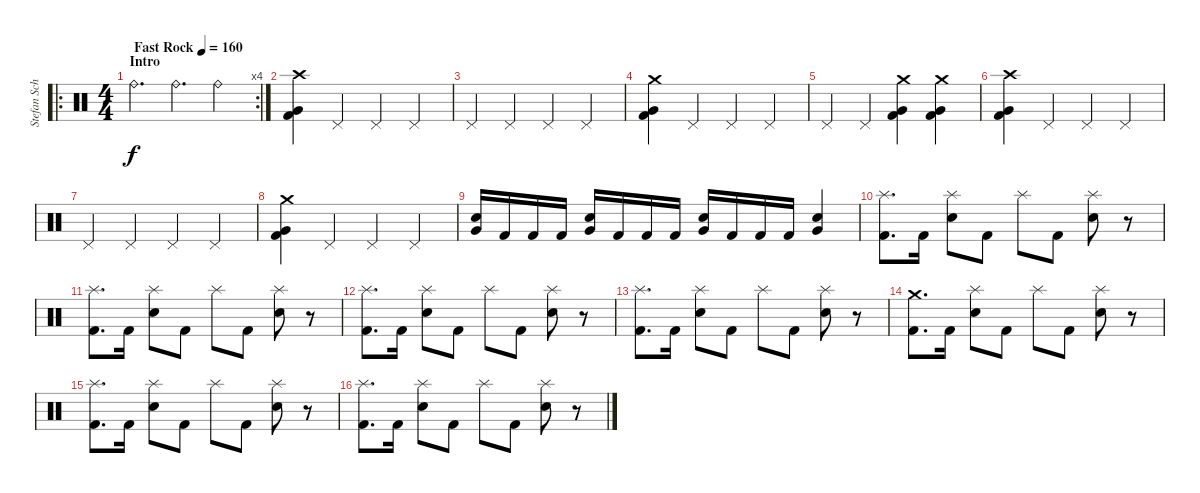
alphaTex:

\track ("Stefan Schwarzmann" "Stefan Sch") {instrument percussion}
\staff {score}
\articulation defaults
\ro
\rc 4
\ts (4 4)
\section ("" "Intro")
\tempo (160 "Fast Rock")
\clef neutral
\ks c "Ride (bell)".4{d dy f} "Ride (bell)".4{d} "Ride (bell)".4
|
("Crash high (hit)" "Very Low Tom (hit)" "Kick (hit) 2").4 "Pedal Hi-Hat (hit)".4 "Pedal Hi-Hat (hit)".4 "Pedal Hi-Hat (hit)".4 |
"Pedal Hi-Hat (hit)".4 "Pedal Hi-Hat (hit)".4 "Pedal Hi-Hat (hit)".4 "Pedal Hi-Hat (hit)".4 |
("Crash medium (hit)" "Very Low Tom (hit)" "Kick (hit) 2").4 "Pedal Hi-Hat (hit)".4 "Pedal Hi-Hat (hit)".4 "Pedal Hi-Hat (hit)".4 |
"Pedal Hi-Hat (hit)".4 "Pedal Hi-Hat (hit)".4 ("Crash medium (hit)" "Very Low Tom (hit)" "Kick (hit) 2").4 ("Crash medium (hit)" "Very Low Tom (hit)" "Kick (hit) 2").4 |
("Crash high (hit)" "Very Low Tom (hit)" "Kick (hit) 2").4 "Pedal Hi-Hat (hit)".4 "Pedal Hi-Hat (hit)".4 "Pedal Hi-Hat (hit)".4 |
"Pedal Hi-Hat (hit)".4 "Pedal Hi-Hat (hit)".4 "Pedal Hi-Hat (hit)".4 "Pedal Hi-Hat (hit)".4 |
("Crash medium (hit)" "Very Low Tom (hit)" "Kick (hit) 2").4 "Pedal Hi-Hat (hit)".4 "Pedal Hi-Hat (hit)".4 "Pedal Hi-Hat (hit)".4 |
("Very Low Tom (hit)" "Snare (hit) 2").16 "Kick (hit) 2".16 "Kick (hit) 2".16 "Kick (hit) 2".16 ("Very Low Tom (hit)" "Snare (hit) 2").16 "Kick (hit) 2".16 "Kick (hit) 2".16 "Kick (hit) 2".16 ("Snare (hit) 2" "Very Low Tom (hit)").16 "Kick (hit) 2".16 "Kick (hit) 2".16 "Kick (hit) 2".16 ("Very Low Tom (hit)" "Snare (hit) 2").4 |
("Splash (hit)" "Kick (hit) 2").8{d} "Kick (hit) 2".16 ("Splash (hit)" "Snare (hit) 2").8 "Kick (hit) 2".8 "Splash (hit)".8 "Kick (hit) 2".8 ("Splash (hit)" "Snare (hit) 2").8 r.8 |
("Splash (hit)" "Kick (hit) 2").8{d} "Kick (hit) 2".16 ("Splash (hit)" "Snare (hit) 2").8 "Kick (hit) 2".8 "Splash (hit)".8 "Kick (hit) 2".8 ("Splash (hit)" "Snare (hit) 2").8 r.8 |
("Splash (hit)" "Kick (hit) 2").8{d} "Kick (hit) 2".16 ("Splash (hit)" "Snare (hit) 2").8 "Kick (hit) 2".8 "Splash (hit)".8 "Kick (hit) 2".8 ("Splash (hit)" "Snare (hit) 2").8 r.8 |
("Splash (hit)" "Kick (hit) 2").8{d} "Kick (hit) 2".16 ("Splash (hit)" "Snare (hit) 2").8 "Kick (hit) 2".8 "Splash (hit)".8 "Kick (hit) 2".8 ("Splash (hit)" "Snare (hit) 2").8 r.8 |
("Crash medium (hit)" "Kick (hit) 2").8{d} "Kick (hit) 2".16 ("Splash (hit)" "Snare (hit) 2").8 "Kick (hit) 2".8 "Splash (hit)".8 "Kick (hit) 2".8 ("Splash (hit)" "Snare (hit) 2").8 r.8 |
("Splash (hit)" "Kick (hit) 2").8{d} "Kick (hit) 2".16 ("Splash (hit)" "Snare (hit) 2").8 "Kick (hit) 2".8 "Splash (hit)".8 "Kick (hit) 2".8 ("Splash (hit)" "Snare (hit) 2").8 r.8 |
("Splash (hit)" "Kick (hit) 2").8{d} "Kick (hit) 2".16 ("Splash (hit)" "Snare (hit) 2").8 "Kick (hit) 2".8 "Splash (hit)".8 "Kick (hit) 2".8 ("Splash (hit)" "Snare (hit) 2").8 r.8
